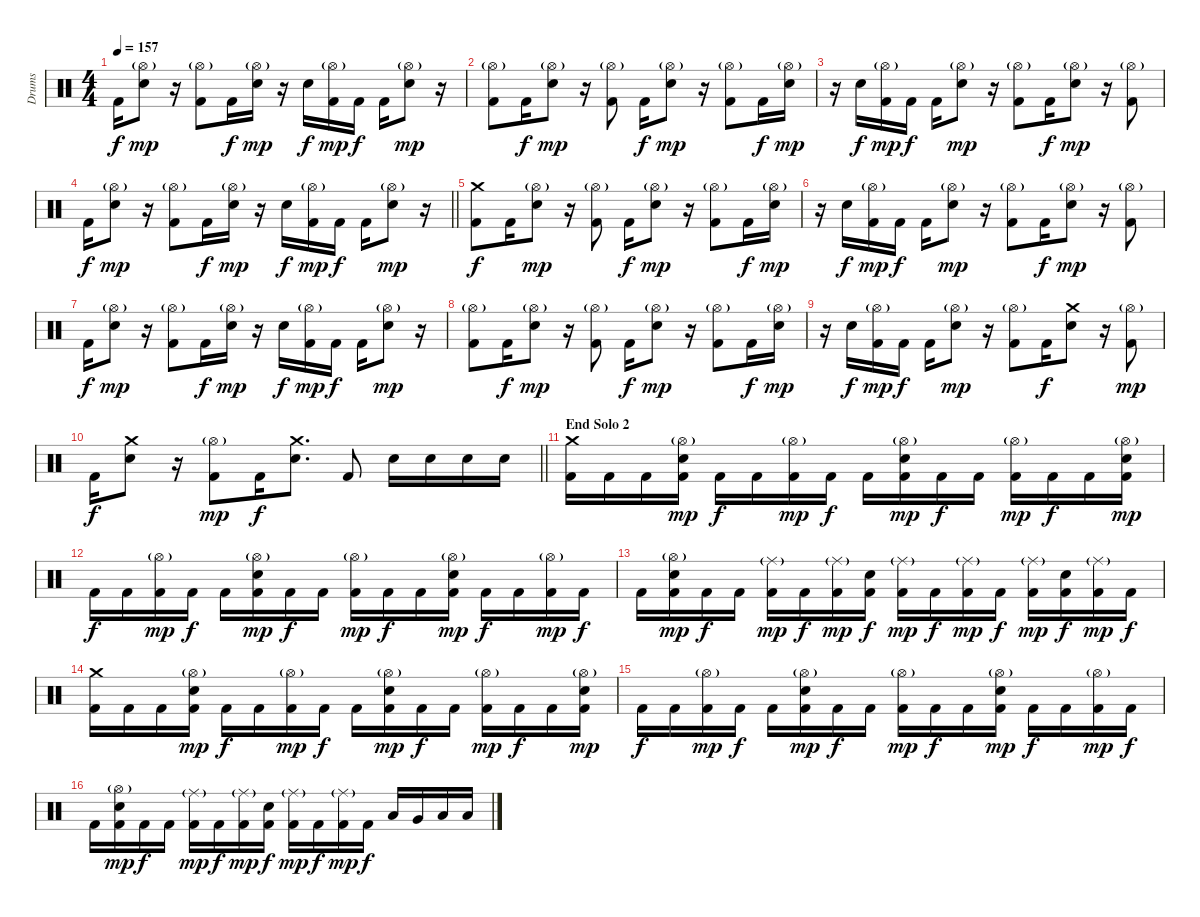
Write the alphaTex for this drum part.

\track ("Drums" "Drums") {instrument percussion}
\staff {score}
\articulation defaults
\ts (4 4)
\tempo 157
\clef neutral
\ks c "Kick (hit) 2".16{dy f}
("Snare (hit) 2" "Hi-Hat (open)"{g}).8{dy mp} r.16 ("Hi-Hat (open)"{g} "Kick (hit) 2").8 "Kick (hit) 2".16{dy f} ("Snare (hit) 2" "Hi-Hat (open)"{g}).16{dy mp} r.16 "Snare (hit) 2".16{dy f} ("Hi-Hat (open)"{g} "Kick (hit) 2").16{dy mp} "Kick (hit) 2".16{dy f} "Kick (hit) 2".16 ("Snare (hit) 2" "Hi-Hat (open)"{g}).8{dy mp} r.16 |
("Hi-Hat (open)"{g} "Kick (hit) 2").8 "Kick (hit) 2".16{dy f} ("Snare (hit) 2" "Hi-Hat (open)"{g}).8{dy mp} r.16 ("Hi-Hat (open)"{g} "Kick (hit) 2").8 "Kick (hit) 2".16{dy f} ("Snare (hit) 2" "Hi-Hat (open)"{g}).8{dy mp} r.16 ("Hi-Hat (open)"{g} "Kick (hit) 2").8 "Kick (hit) 2".16{dy f} ("Snare (hit) 2" "Hi-Hat (open)"{g}).16{dy mp} |
r.16 "Snare (hit) 2".16{dy f} ("Hi-Hat (open)"{g} "Kick (hit) 2").16{dy mp} "Kick (hit) 2".16{dy f} "Kick (hit) 2".16 ("Snare (hit) 2" "Hi-Hat (open)"{g}).8{dy mp} r.16 ("Hi-Hat (open)"{g} "Kick (hit) 2").8 "Kick (hit) 2".16{dy f} ("Snare (hit) 2" "Hi-Hat (open)"{g}).8{dy mp} r.16 ("Hi-Hat (open)"{g} "Kick (hit) 2").8 |
\barLineRight lightlight "Kick (hit) 2".16{dy f}
("Snare (hit) 2" "Hi-Hat (open)"{g}).8{dy mp} r.16 ("Hi-Hat (open)"{g} "Kick (hit) 2").8 "Kick (hit) 2".16{dy f} ("Snare (hit) 2" "Hi-Hat (open)"{g}).16{dy mp} r.16 "Snare (hit) 2".16{dy f} ("Hi-Hat (open)"{g} "Kick (hit) 2").16{dy mp} "Kick (hit) 2".16{dy f} "Kick (hit) 2".16 ("Snare (hit) 2" "Hi-Hat (open)"{g}).8{dy mp} r.16 |
("Crash medium (hit)" "Kick (hit) 2").8{dy f} "Kick (hit) 2".16 ("Snare (hit) 2" "Hi-Hat (open)"{g}).8{dy mp} r.16 ("Hi-Hat (open)"{g} "Kick (hit) 2").8 "Kick (hit) 2".16{dy f} ("Snare (hit) 2" "Hi-Hat (open)"{g}).8{dy mp} r.16 ("Hi-Hat (open)"{g} "Kick (hit) 2").8 "Kick (hit) 2".16{dy f} ("Snare (hit) 2" "Hi-Hat (open)"{g}).16{dy mp} |
r.16 "Snare (hit) 2".16{dy f} ("Hi-Hat (open)"{g} "Kick (hit) 2").16{dy mp} "Kick (hit) 2".16{dy f} "Kick (hit) 2".16 ("Snare (hit) 2" "Hi-Hat (open)"{g}).8{dy mp} r.16 ("Hi-Hat (open)"{g} "Kick (hit) 2").8 "Kick (hit) 2".16{dy f} ("Snare (hit) 2" "Hi-Hat (open)"{g}).8{dy mp} r.16 ("Hi-Hat (open)"{g} "Kick (hit) 2").8 |
"Kick (hit) 2".16{dy f} ("Snare (hit) 2" "Hi-Hat (open)"{g}).8{dy mp} r.16 ("Hi-Hat (open)"{g} "Kick (hit) 2").8 "Kick (hit) 2".16{dy f} ("Snare (hit) 2" "Hi-Hat (open)"{g}).16{dy mp} r.16 "Snare (hit) 2".16{dy f} ("Hi-Hat (open)"{g} "Kick (hit) 2").16{dy mp} "Kick (hit) 2".16{dy f} "Kick (hit) 2".16 ("Snare (hit) 2" "Hi-Hat (open)"{g}).8{dy mp} r.16 |
("Hi-Hat (open)"{g} "Kick (hit) 2").8 "Kick (hit) 2".16{dy f} ("Snare (hit) 2" "Hi-Hat (open)"{g}).8{dy mp} r.16 ("Hi-Hat (open)"{g} "Kick (hit) 2").8 "Kick (hit) 2".16{dy f} ("Snare (hit) 2" "Hi-Hat (open)"{g}).8{dy mp} r.16 ("Hi-Hat (open)"{g} "Kick (hit) 2").8 "Kick (hit) 2".16{dy f} ("Snare (hit) 2" "Hi-Hat (open)"{g}).16{dy mp} |
r.16 "Snare (hit) 2".16{dy f} ("Hi-Hat (open)"{g} "Kick (hit) 2").16{dy mp} "Kick (hit) 2".16{dy f} "Kick (hit) 2".16 ("Snare (hit) 2" "Hi-Hat (open)"{g}).8{dy mp} r.16 ("Hi-Hat (open)"{g} "Kick (hit) 2").8 "Kick (hit) 2".16{dy f} ("Crash medium (hit)" "Snare (hit) 2").8 r.16 ("Hi-Hat (open)"{g} "Kick (hit) 2").8{dy mp} |
\barLineRight lightlight "Kick (hit) 2".16{dy f}
("Crash medium (hit)" "Snare (hit) 2").8 r.16 ("Hi-Hat (open)"{g} "Kick (hit) 2").8{dy mp} "Kick (hit) 2".16{dy f} ("Crash medium (hit)" "Snare (hit) 2").8{d} "Kick (hit) 2".8 "Snare (hit) 2".16 "Snare (hit) 2".16 "Snare (hit) 2".16 "Snare (hit) 2".16 |
\section ("" "End Solo 2")
("Crash medium (hit)" "Kick (hit) 2").16 "Kick (hit) 2".16 "Kick (hit) 2".16 ("Hi-Hat (open)"{g} "Snare (hit) 2" "Kick (hit) 2").16{dy mp} "Kick (hit) 2".16{dy f} "Kick (hit) 2".16 ("Hi-Hat (open)"{g} "Kick (hit) 2").16{dy mp} "Kick (hit) 2".16{dy f} "Kick (hit) 2".16 ("Hi-Hat (open)"{g} "Snare (hit) 2" "Kick (hit) 2").16{dy mp} "Kick (hit) 2".16{dy f} "Kick (hit) 2".16 ("Hi-Hat (open)"{g} "Kick (hit) 2").16{dy mp} "Kick (hit) 2".16{dy f} "Kick (hit) 2".16 ("Hi-Hat (open)"{g} "Snare (hit) 2" "Kick (hit) 2").16{dy mp} |
"Kick (hit) 2".16{dy f} "Kick (hit) 2".16 ("Hi-Hat (open)"{g} "Kick (hit) 2").16{dy mp} "Kick (hit) 2".16{dy f} "Kick (hit) 2".16 ("Hi-Hat (open)"{g} "Snare (hit) 2" "Kick (hit) 2").16{dy mp} "Kick (hit) 2".16{dy f} "Kick (hit) 2".16 ("Hi-Hat (open)"{g} "Kick (hit) 2").16{dy mp} "Kick (hit) 2".16{dy f} "Kick (hit) 2".16 ("Hi-Hat (open)"{g} "Snare (hit) 2" "Kick (hit) 2").16{dy mp} "Kick (hit) 2".16{dy f} "Kick (hit) 2".16 ("Hi-Hat (open)"{g} "Kick (hit) 2").16{dy mp} "Kick (hit) 2".16{dy f} |
"Kick (hit) 2".16 ("Hi-Hat (open)"{g} "Snare (hit) 2" "Kick (hit) 2").16{dy mp} "Kick (hit) 2".16{dy f} "Kick (hit) 2".16 ("Ride (middle)"{g} "Kick (hit) 2").16{dy mp} "Kick (hit) 2".16{dy f} ("Ride (middle)"{g} "Kick (hit) 2").16{dy mp} ("Snare (hit) 2" "Kick (hit) 2").16{dy f} ("Ride (middle)"{g} "Kick (hit) 2").16{dy mp} "Kick (hit) 2".16{dy f} ("Ride (middle)"{g} "Kick (hit) 2").16{dy mp} "Kick (hit) 2".16{dy f} ("Ride (middle)"{g} "Kick (hit) 2").16{dy mp} ("Snare (hit) 2" "Kick (hit) 2").16{dy f} ("Ride (middle)"{g} "Kick (hit) 2").16{dy mp} "Kick (hit) 2".16{dy f} |
("Crash medium (hit)" "Kick (hit) 2").16 "Kick (hit) 2".16 "Kick (hit) 2".16 ("Hi-Hat (open)"{g} "Snare (hit) 2" "Kick (hit) 2").16{dy mp} "Kick (hit) 2".16{dy f} "Kick (hit) 2".16 ("Hi-Hat (open)"{g} "Kick (hit) 2").16{dy mp} "Kick (hit) 2".16{dy f} "Kick (hit) 2".16 ("Hi-Hat (open)"{g} "Snare (hit) 2" "Kick (hit) 2").16{dy mp} "Kick (hit) 2".16{dy f} "Kick (hit) 2".16 ("Hi-Hat (open)"{g} "Kick (hit) 2").16{dy mp} "Kick (hit) 2".16{dy f} "Kick (hit) 2".16 ("Hi-Hat (open)"{g} "Snare (hit) 2" "Kick (hit) 2").16{dy mp} |
"Kick (hit) 2".16{dy f} "Kick (hit) 2".16 ("Hi-Hat (open)"{g} "Kick (hit) 2").16{dy mp} "Kick (hit) 2".16{dy f} "Kick (hit) 2".16 ("Hi-Hat (open)"{g} "Snare (hit) 2" "Kick (hit) 2").16{dy mp} "Kick (hit) 2".16{dy f} "Kick (hit) 2".16 ("Hi-Hat (open)"{g} "Kick (hit) 2").16{dy mp} "Kick (hit) 2".16{dy f} "Kick (hit) 2".16 ("Hi-Hat (open)"{g} "Snare (hit) 2" "Kick (hit) 2").16{dy mp} "Kick (hit) 2".16{dy f} "Kick (hit) 2".16 ("Hi-Hat (open)"{g} "Kick (hit) 2").16{dy mp} "Kick (hit) 2".16{dy f} |
"Kick (hit) 2".16 ("Hi-Hat (open)"{g} "Snare (hit) 2" "Kick (hit) 2").16{dy mp} "Kick (hit) 2".16{dy f} "Kick (hit) 2".16 ("Ride (middle)"{g} "Kick (hit) 2").16{dy mp} "Kick (hit) 2".16{dy f} ("Ride (middle)"{g} "Kick (hit) 2").16{dy mp} ("Snare (hit) 2" "Kick (hit) 2").16{dy f} ("Ride (middle)"{g} "Kick (hit) 2").16{dy mp} "Kick (hit) 2".16{dy f} ("Ride (middle)"{g} "Kick (hit) 2").16{dy mp} "Kick (hit) 2".16{dy f} "Low Tom (hit)".16 "Very Low Tom (hit)".16 "Low Floor Tom (hit)".16 "Low Floor Tom (hit)".16
